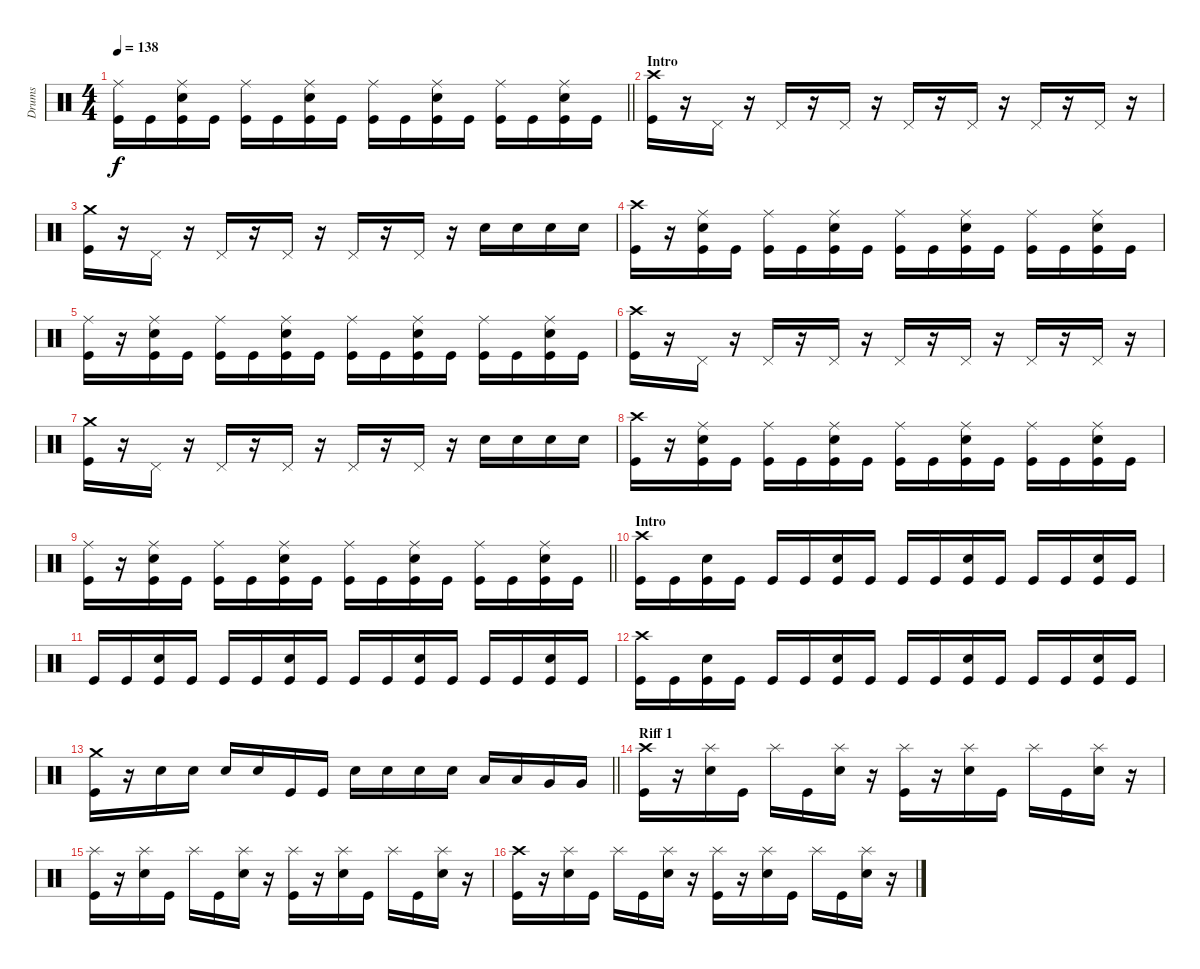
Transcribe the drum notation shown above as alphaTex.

\track ("Drums" "Drums") {instrument percussion}
\staff {score}
\articulation defaults
\ts (4 4)
\tempo 138
\clef neutral
\barLineRight lightlight
\ks c
("Ride (middle)" "Kick (hit)").16{dy f} "Kick (hit)".16 ("Ride (middle)" "Electric Snare (hit)" "Kick (hit)").16 "Kick (hit)".16 ("Ride (middle)" "Kick (hit)").16 "Kick (hit)".16 ("Ride (middle)" "Electric Snare (hit)" "Kick (hit)").16 "Kick (hit)".16 ("Ride (middle)" "Kick (hit)").16 "Kick (hit)".16 ("Ride (middle)" "Electric Snare (hit)" "Kick (hit)").16 "Kick (hit)".16 ("Ride (middle)" "Kick (hit)").16 "Kick (hit)".16 ("Ride (middle)" "Electric Snare (hit)" "Kick (hit)").16 "Kick (hit)".16 |
\section ("" "Intro")
("Crash high (hit)" "Kick (hit)").16 r.16 "Pedal Hi-Hat (hit)".16 r.16 "Pedal Hi-Hat (hit)".16 r.16 "Pedal Hi-Hat (hit)".16 r.16 "Pedal Hi-Hat (hit)".16 r.16 "Pedal Hi-Hat (hit)".16 r.16 "Pedal Hi-Hat (hit)".16 r.16 "Pedal Hi-Hat (hit)".16 r.16 |
("Crash medium (hit)" "Kick (hit)").16 r.16 "Pedal Hi-Hat (hit)".16 r.16 "Pedal Hi-Hat (hit)".16 r.16 "Pedal Hi-Hat (hit)".16 r.16 "Pedal Hi-Hat (hit)".16 r.16 "Pedal Hi-Hat (hit)".16 r.16 "Electric Snare (hit)".16 "Electric Snare (hit)".16 "Electric Snare (hit)".16 "Electric Snare (hit)".16 |
("Crash high (hit)" "Kick (hit)").16 r.16 ("Ride (middle)" "Electric Snare (hit)" "Kick (hit)").16 "Kick (hit)".16 ("Ride (middle)" "Kick (hit)").16 "Kick (hit)".16 ("Ride (middle)" "Electric Snare (hit)" "Kick (hit)").16 "Kick (hit)".16 ("Ride (middle)" "Kick (hit)").16 "Kick (hit)".16 ("Ride (middle)" "Electric Snare (hit)" "Kick (hit)").16 "Kick (hit)".16 ("Ride (middle)" "Kick (hit)").16 "Kick (hit)".16 ("Ride (middle)" "Electric Snare (hit)" "Kick (hit)").16 "Kick (hit)".16 |
("Ride (middle)" "Kick (hit)").16 r.16 ("Ride (middle)" "Electric Snare (hit)" "Kick (hit)").16 "Kick (hit)".16 ("Ride (middle)" "Kick (hit)").16 "Kick (hit)".16 ("Ride (middle)" "Electric Snare (hit)" "Kick (hit)").16 "Kick (hit)".16 ("Ride (middle)" "Kick (hit)").16 "Kick (hit)".16 ("Ride (middle)" "Electric Snare (hit)" "Kick (hit)").16 "Kick (hit)".16 ("Ride (middle)" "Kick (hit)").16 "Kick (hit)".16 ("Ride (middle)" "Electric Snare (hit)" "Kick (hit)").16 "Kick (hit)".16 |
("Crash high (hit)" "Kick (hit)").16 r.16 "Pedal Hi-Hat (hit)".16 r.16 "Pedal Hi-Hat (hit)".16 r.16 "Pedal Hi-Hat (hit)".16 r.16 "Pedal Hi-Hat (hit)".16 r.16 "Pedal Hi-Hat (hit)".16 r.16 "Pedal Hi-Hat (hit)".16 r.16 "Pedal Hi-Hat (hit)".16 r.16 |
("Crash medium (hit)" "Kick (hit)").16 r.16 "Pedal Hi-Hat (hit)".16 r.16 "Pedal Hi-Hat (hit)".16 r.16 "Pedal Hi-Hat (hit)".16 r.16 "Pedal Hi-Hat (hit)".16 r.16 "Pedal Hi-Hat (hit)".16 r.16 "Electric Snare (hit)".16 "Electric Snare (hit)".16 "Electric Snare (hit)".16 "Electric Snare (hit)".16 |
("Crash high (hit)" "Kick (hit)").16 r.16 ("Ride (middle)" "Electric Snare (hit)" "Kick (hit)").16 "Kick (hit)".16 ("Ride (middle)" "Kick (hit)").16 "Kick (hit)".16 ("Ride (middle)" "Electric Snare (hit)" "Kick (hit)").16 "Kick (hit)".16 ("Ride (middle)" "Kick (hit)").16 "Kick (hit)".16 ("Ride (middle)" "Electric Snare (hit)" "Kick (hit)").16 "Kick (hit)".16 ("Ride (middle)" "Kick (hit)").16 "Kick (hit)".16 ("Ride (middle)" "Electric Snare (hit)" "Kick (hit)").16 "Kick (hit)".16 |
\barLineRight lightlight
("Ride (middle)" "Kick (hit)").16 r.16 ("Ride (middle)" "Electric Snare (hit)" "Kick (hit)").16 "Kick (hit)".16 ("Ride (middle)" "Kick (hit)").16 "Kick (hit)".16 ("Ride (middle)" "Electric Snare (hit)" "Kick (hit)").16 "Kick (hit)".16 ("Ride (middle)" "Kick (hit)").16 "Kick (hit)".16 ("Ride (middle)" "Electric Snare (hit)" "Kick (hit)").16 "Kick (hit)".16 ("Ride (middle)" "Kick (hit)").16 "Kick (hit)".16 ("Ride (middle)" "Electric Snare (hit)" "Kick (hit)").16 "Kick (hit)".16 |
\section ("" "Intro")
("Crash high (hit)" "Kick (hit)").16 "Kick (hit)".16 ("Electric Snare (hit)" "Kick (hit)").16 "Kick (hit)".16 "Kick (hit)".16 "Kick (hit)".16 ("Electric Snare (hit)" "Kick (hit)").16 "Kick (hit)".16 "Kick (hit)".16 "Kick (hit)".16 ("Electric Snare (hit)" "Kick (hit)").16 "Kick (hit)".16 "Kick (hit)".16 "Kick (hit)".16 ("Electric Snare (hit)" "Kick (hit)").16 "Kick (hit)".16 |
"Kick (hit)".16 "Kick (hit)".16 ("Electric Snare (hit)" "Kick (hit)").16 "Kick (hit)".16 "Kick (hit)".16 "Kick (hit)".16 ("Electric Snare (hit)" "Kick (hit)").16 "Kick (hit)".16 "Kick (hit)".16 "Kick (hit)".16 ("Electric Snare (hit)" "Kick (hit)").16 "Kick (hit)".16 "Kick (hit)".16 "Kick (hit)".16 ("Electric Snare (hit)" "Kick (hit)").16 "Kick (hit)".16 |
("Crash high (hit)" "Kick (hit)").16 "Kick (hit)".16 ("Electric Snare (hit)" "Kick (hit)").16 "Kick (hit)".16 "Kick (hit)".16 "Kick (hit)".16 ("Electric Snare (hit)" "Kick (hit)").16 "Kick (hit)".16 "Kick (hit)".16 "Kick (hit)".16 ("Electric Snare (hit)" "Kick (hit)").16 "Kick (hit)".16 "Kick (hit)".16 "Kick (hit)".16 ("Electric Snare (hit)" "Kick (hit)").16 "Kick (hit)".16 |
\barLineRight lightlight
("Crash medium (hit)" "Kick (hit)").16 r.16 "Electric Snare (hit)".16 "Electric Snare (hit)".16 "Electric Snare (hit)".16 "Electric Snare (hit)".16 "Kick (hit)".16 "Kick (hit)".16 "Electric Snare (hit)".16 "Electric Snare (hit)".16 "Electric Snare (hit)".16 "Electric Snare (hit)".16 "Low Tom (hit)".16 "Low Tom (hit)".16 "Very Low Tom (hit)".16 "Very Low Tom (hit)".16 |
\section ("" "Riff 1")
("Crash high (hit)" "Kick (hit)").16 r.16 ("Splash (hit)" "Electric Snare (hit)").16 "Kick (hit)".16 "Splash (hit)".16 "Kick (hit)".16 ("Splash (hit)" "Electric Snare (hit)").16 r.16 ("Splash (hit)" "Kick (hit)").16 r.16 ("Splash (hit)" "Electric Snare (hit)").16 "Kick (hit)".16 "Splash (hit)".16 "Kick (hit)".16 ("Splash (hit)" "Electric Snare (hit)").16 r.16 |
("Splash (hit)" "Kick (hit)").16 r.16 ("Splash (hit)" "Electric Snare (hit)").16 "Kick (hit)".16 "Splash (hit)".16 "Kick (hit)".16 ("Splash (hit)" "Electric Snare (hit)").16 r.16 ("Splash (hit)" "Kick (hit)").16 r.16 ("Splash (hit)" "Electric Snare (hit)").16 "Kick (hit)".16 "Splash (hit)".16 "Kick (hit)".16 ("Splash (hit)" "Electric Snare (hit)").16 r.16 |
("Crash high (hit)" "Kick (hit)").16 r.16 ("Splash (hit)" "Electric Snare (hit)").16 "Kick (hit)".16 "Splash (hit)".16 "Kick (hit)".16 ("Splash (hit)" "Electric Snare (hit)").16 r.16 ("Splash (hit)" "Kick (hit)").16 r.16 ("Splash (hit)" "Electric Snare (hit)").16 "Kick (hit)".16 "Splash (hit)".16 "Kick (hit)".16 ("Splash (hit)" "Electric Snare (hit)").16 r.16
